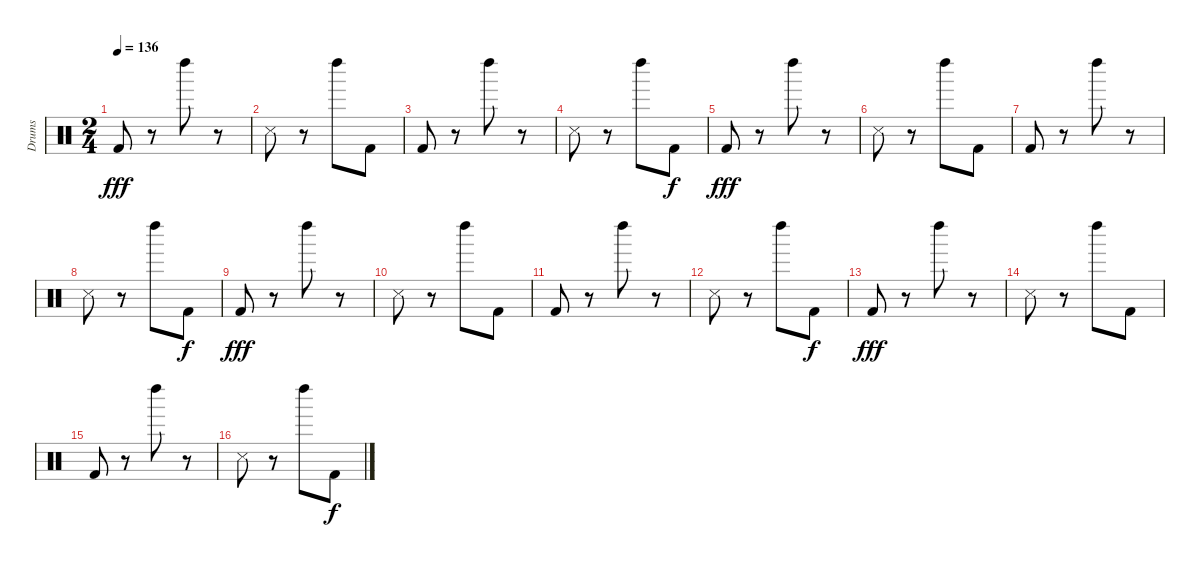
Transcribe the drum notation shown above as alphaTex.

\track ("Drums" "Drums") {instrument percussion}
\staff {score}
\articulation defaults
\ts (2 4)
\tempo 136
\clef neutral
\ks c "Kick (hit) 2".8{dy fff}
r.8 "Left Maraca (hit)".8 r.8 |
"Snare (side stick) 3".8 r.8 "Left Maraca (hit)".8 "Kick (hit) 2".8 |
"Kick (hit) 2".8 r.8 "Left Maraca (hit)".8 r.8 |
"Snare (side stick) 3".8 r.8 "Left Maraca (hit)".8 "Kick (hit) 2".8{dy f} |
"Kick (hit) 2".8{dy fff} r.8 "Left Maraca (hit)".8 r.8 |
"Snare (side stick) 3".8 r.8 "Left Maraca (hit)".8 "Kick (hit) 2".8 |
"Kick (hit) 2".8 r.8 "Left Maraca (hit)".8 r.8 |
"Snare (side stick) 3".8 r.8 "Left Maraca (hit)".8 "Kick (hit) 2".8{dy f} |
"Kick (hit) 2".8{dy fff} r.8 "Left Maraca (hit)".8 r.8 |
"Snare (side stick) 3".8 r.8 "Left Maraca (hit)".8 "Kick (hit) 2".8 |
"Kick (hit) 2".8 r.8 "Left Maraca (hit)".8 r.8 |
"Snare (side stick) 3".8 r.8 "Left Maraca (hit)".8 "Kick (hit) 2".8{dy f} |
"Kick (hit) 2".8{dy fff} r.8 "Left Maraca (hit)".8 r.8 |
"Snare (side stick) 3".8 r.8 "Left Maraca (hit)".8 "Kick (hit) 2".8 |
"Kick (hit) 2".8 r.8 "Left Maraca (hit)".8 r.8 |
"Snare (side stick) 3".8 r.8 "Left Maraca (hit)".8 "Kick (hit) 2".8{dy f}
